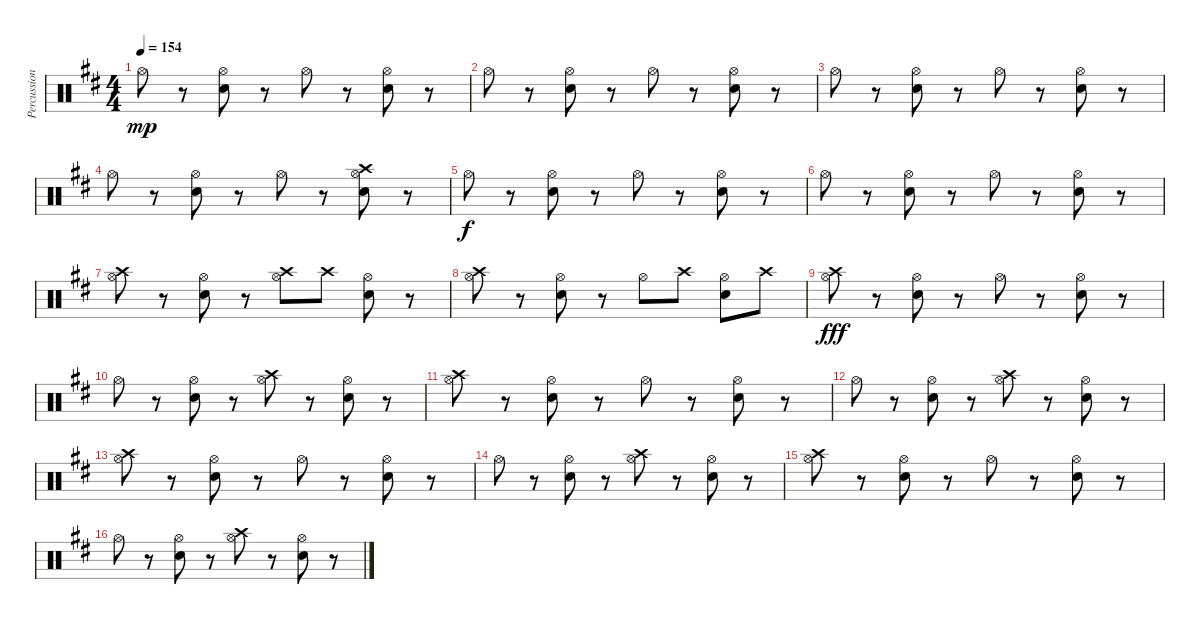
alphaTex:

\track ("Percussion (Mike Felumlee" "Percussion") {instrument percussion}
\staff {score}
\articulation defaults
\ts (4 4)
\tempo 154
\clef neutral
\ks bminor "Hi-Hat (open)".8{dy mp}
r.8 ("Hi-Hat (open)" "Electric Snare (hit)").8 r.8 "Hi-Hat (open)".8 r.8 ("Hi-Hat (open)" "Electric Snare (hit)").8 r.8 |
"Hi-Hat (open)".8 r.8 ("Hi-Hat (open)" "Electric Snare (hit)").8 r.8 "Hi-Hat (open)".8 r.8 ("Hi-Hat (open)" "Electric Snare (hit)").8 r.8 |
"Hi-Hat (open)".8 r.8 ("Hi-Hat (open)" "Electric Snare (hit)").8 r.8 "Hi-Hat (open)".8 r.8 ("Hi-Hat (open)" "Electric Snare (hit)").8 r.8 |
"Hi-Hat (open)".8 r.8 ("Hi-Hat (open)" "Electric Snare (hit)").8 r.8 "Hi-Hat (open)".8 r.8 ("Hi-Hat (open)" "Electric Snare (hit)" "Crash high (hit)").8 r.8 |
"Hi-Hat (open)".8{dy f} r.8 ("Hi-Hat (open)" "Electric Snare (hit)").8 r.8 "Hi-Hat (open)".8 r.8 ("Hi-Hat (open)" "Electric Snare (hit)").8 r.8 |
"Hi-Hat (open)".8 r.8 ("Hi-Hat (open)" "Electric Snare (hit)").8 r.8 "Hi-Hat (open)".8 r.8 ("Hi-Hat (open)" "Electric Snare (hit)").8 r.8 |
("Hi-Hat (open)" "Crash high (hit)").8 r.8 ("Hi-Hat (open)" "Electric Snare (hit)").8 r.8 ("Hi-Hat (open)" "Crash high (hit)").8 "Crash high (hit)".8 ("Hi-Hat (open)" "Electric Snare (hit)").8 r.8 |
("Hi-Hat (open)" "Crash high (hit)").8 r.8 ("Hi-Hat (open)" "Electric Snare (hit)").8 r.8 "Hi-Hat (open)".8 "Crash high (hit)".8 ("Hi-Hat (open)" "Electric Snare (hit)").8 "Crash high (hit)".8 |
("Hi-Hat (open)" "Crash high (hit)").8{dy fff} r.8 ("Hi-Hat (open)" "Electric Snare (hit)").8 r.8 "Hi-Hat (open)".8 r.8 ("Hi-Hat (open)" "Electric Snare (hit)").8 r.8 |
"Hi-Hat (open)".8 r.8 ("Hi-Hat (open)" "Electric Snare (hit)").8 r.8 ("Hi-Hat (open)" "Crash high (hit)").8 r.8 ("Hi-Hat (open)" "Electric Snare (hit)").8 r.8 |
("Hi-Hat (open)" "Crash high (hit)").8 r.8 ("Hi-Hat (open)" "Electric Snare (hit)").8 r.8 "Hi-Hat (open)".8 r.8 ("Hi-Hat (open)" "Electric Snare (hit)").8 r.8 |
"Hi-Hat (open)".8 r.8 ("Hi-Hat (open)" "Electric Snare (hit)").8 r.8 ("Hi-Hat (open)" "Crash high (hit)").8 r.8 ("Hi-Hat (open)" "Electric Snare (hit)").8 r.8 |
("Hi-Hat (open)" "Crash high (hit)").8 r.8 ("Hi-Hat (open)" "Electric Snare (hit)").8 r.8 "Hi-Hat (open)".8 r.8 ("Hi-Hat (open)" "Electric Snare (hit)").8 r.8 |
"Hi-Hat (open)".8 r.8 ("Hi-Hat (open)" "Electric Snare (hit)").8 r.8 ("Hi-Hat (open)" "Crash high (hit)").8 r.8 ("Hi-Hat (open)" "Electric Snare (hit)").8 r.8 |
("Hi-Hat (open)" "Crash high (hit)").8 r.8 ("Hi-Hat (open)" "Electric Snare (hit)").8 r.8 "Hi-Hat (open)".8 r.8 ("Hi-Hat (open)" "Electric Snare (hit)").8 r.8 |
"Hi-Hat (open)".8 r.8 ("Hi-Hat (open)" "Electric Snare (hit)").8 r.8 ("Hi-Hat (open)" "Crash high (hit)").8 r.8 ("Hi-Hat (open)" "Electric Snare (hit)").8 r.8
